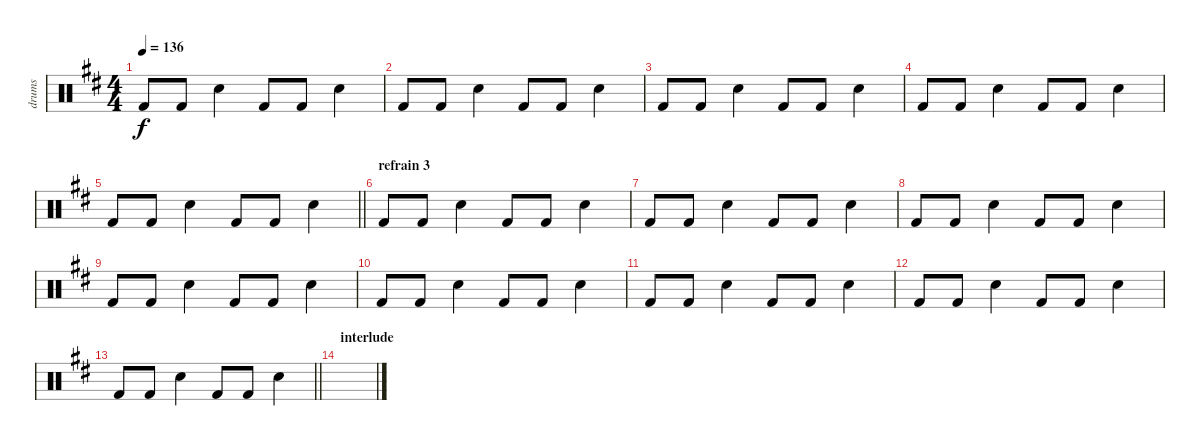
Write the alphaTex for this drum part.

\track ("drums" "drums") {instrument percussion}
\staff {score}
\articulation defaults
\ts (4 4)
\tempo 136
\clef neutral
\ks d "Kick (hit) 2".8{dy f} "Kick (hit) 2".8 "Electric Snare (hit)".4 "Kick (hit) 2".8 "Kick (hit) 2".8 "Electric Snare (hit)".4
|
"Kick (hit) 2".8 "Kick (hit) 2".8 "Electric Snare (hit)".4 "Kick (hit) 2".8 "Kick (hit) 2".8 "Electric Snare (hit)".4 |
"Kick (hit) 2".8 "Kick (hit) 2".8 "Electric Snare (hit)".4 "Kick (hit) 2".8 "Kick (hit) 2".8 "Electric Snare (hit)".4 |
"Kick (hit) 2".8 "Kick (hit) 2".8 "Electric Snare (hit)".4 "Kick (hit) 2".8 "Kick (hit) 2".8 "Electric Snare (hit)".4 |
\barLineRight lightlight "Kick (hit) 2".8 "Kick (hit) 2".8 "Electric Snare (hit)".4 "Kick (hit) 2".8 "Kick (hit) 2".8 "Electric Snare (hit)".4
|
\section ("" "refrain 3")
"Kick (hit) 2".8 "Kick (hit) 2".8 "Electric Snare (hit)".4 "Kick (hit) 2".8 "Kick (hit) 2".8 "Electric Snare (hit)".4 |
"Kick (hit) 2".8 "Kick (hit) 2".8 "Electric Snare (hit)".4 "Kick (hit) 2".8 "Kick (hit) 2".8 "Electric Snare (hit)".4 |
"Kick (hit) 2".8 "Kick (hit) 2".8 "Electric Snare (hit)".4 "Kick (hit) 2".8 "Kick (hit) 2".8 "Electric Snare (hit)".4 |
"Kick (hit) 2".8 "Kick (hit) 2".8 "Electric Snare (hit)".4 "Kick (hit) 2".8 "Kick (hit) 2".8 "Electric Snare (hit)".4 |
"Kick (hit) 2".8 "Kick (hit) 2".8 "Electric Snare (hit)".4 "Kick (hit) 2".8 "Kick (hit) 2".8 "Electric Snare (hit)".4 |
"Kick (hit) 2".8 "Kick (hit) 2".8 "Electric Snare (hit)".4 "Kick (hit) 2".8 "Kick (hit) 2".8 "Electric Snare (hit)".4 |
"Kick (hit) 2".8 "Kick (hit) 2".8 "Electric Snare (hit)".4 "Kick (hit) 2".8 "Kick (hit) 2".8 "Electric Snare (hit)".4 |
\barLineRight lightlight "Kick (hit) 2".8 "Kick (hit) 2".8 "Electric Snare (hit)".4 "Kick (hit) 2".8 "Kick (hit) 2".8 "Electric Snare (hit)".4
|
\section ("" "interlude")
